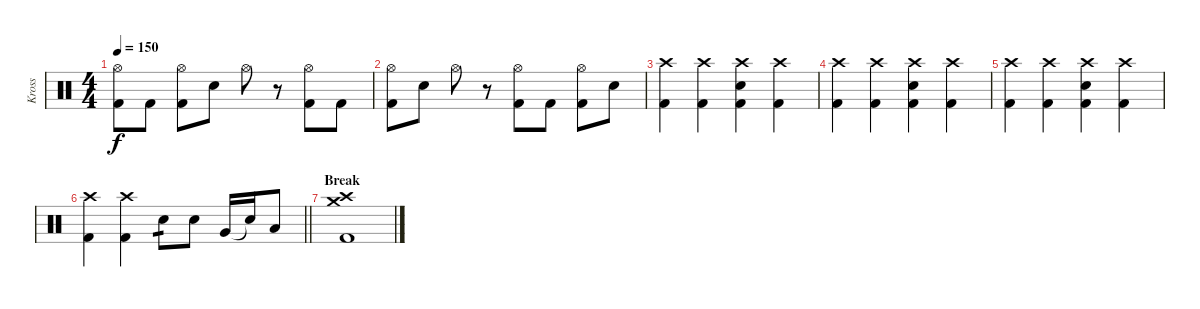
\track ("Kross" "Kross") {instrument percussion}
\staff {score}
\articulation defaults
\ts (4 4)
\tempo 150
\clef neutral
\ks c
("Hi-Hat (open)" "Kick (hit) 2").8{dy f} "Kick (hit) 2".8 ("Hi-Hat (open)" "Kick (hit) 2").8 "Electric Snare (hit)".8 "Hi-Hat (open)".8 r.8 ("Hi-Hat (open)" "Kick (hit) 2").8 "Kick (hit) 2".8 |
("Hi-Hat (open)" "Kick (hit) 2").8 "Electric Snare (hit)".8 "Hi-Hat (open)".8 r.8 ("Hi-Hat (open)" "Kick (hit) 2").8 "Kick (hit) 2".8 ("Hi-Hat (open)" "Kick (hit) 2").8 "Electric Snare (hit)".8 |
("Kick (hit) 2" "Crash high (hit)").4 ("Kick (hit) 2" "Crash high (hit)").4 ("Crash high (hit)" "Kick (hit) 2" "Electric Snare (hit)").4 ("Kick (hit) 2" "Crash high (hit)").4 |
("Kick (hit) 2" "Crash high (hit)").4 ("Kick (hit) 2" "Crash high (hit)").4 ("Crash high (hit)" "Kick (hit) 2" "Electric Snare (hit)").4 ("Kick (hit) 2" "Crash high (hit)").4 |
("Kick (hit) 2" "Crash high (hit)").4 ("Kick (hit) 2" "Crash high (hit)").4 ("Crash high (hit)" "Kick (hit) 2" "Electric Snare (hit)").4 ("Kick (hit) 2" "Crash high (hit)").4 |
\barLineRight lightlight
("Kick (hit) 2" "Crash high (hit)").4 ("Kick (hit) 2" "Crash high (hit)").4 "Electric Snare (hit)".8{tp 1} "Electric Snare (hit)".8 "Very Low Tom (hit)".16 "Snare (hit)"{t}.16 "Low Floor Tom (hit)".8 |
\section ("" "Break")
("Crash medium (hit)" "Crash high (hit)" "Kick (hit) 2").1
